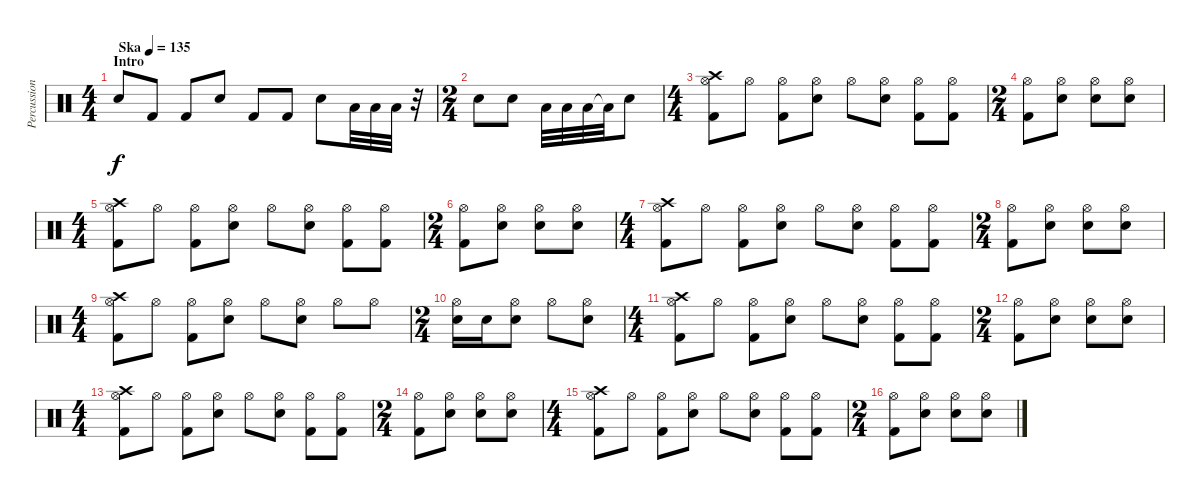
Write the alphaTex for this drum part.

\track ("Percussion" "Percussion") {instrument percussion}
\staff {score}
\articulation defaults
\ts (4 4)
\section ("" "Intro")
\tempo (135 "Ska")
\clef neutral
\ks c "Electric Snare (hit)".8{dy f} "Kick (hit) 2".8 "Kick (hit) 2".8 "Electric Snare (hit)".8 "Kick (hit) 2".8 "Kick (hit) 2".8 "Electric Snare (hit)".8 "Low Tom (hit)".32 "Low Tom (hit)".32 "Low Tom (hit)".32
r.32 |
\ts (2 4)
"Electric Snare (hit)".8 "Electric Snare (hit)".8 "Low Tom (hit)".32 "Low Tom (hit)".32 "Low Tom (hit)".32 "Low Tom (hit)"{t}.32 "Electric Snare (hit)".8 |
\ts (4 4)
("Crash high (hit)" "Hi-Hat (open)" "Kick (hit) 2").8 "Hi-Hat (open)".8 ("Hi-Hat (open)" "Kick (hit) 2").8 ("Hi-Hat (open)" "Electric Snare (hit)").8 "Hi-Hat (open)".8 ("Hi-Hat (open)" "Electric Snare (hit)").8 ("Hi-Hat (open)" "Kick (hit) 2").8 ("Hi-Hat (open)" "Kick (hit) 2").8 |
\ts (2 4)
("Hi-Hat (open)" "Kick (hit) 2").8 ("Hi-Hat (open)" "Electric Snare (hit)").8 ("Hi-Hat (open)" "Electric Snare (hit)").8 ("Hi-Hat (open)" "Electric Snare (hit)").8 |
\ts (4 4)
("Crash high (hit)" "Hi-Hat (open)" "Kick (hit) 2").8 "Hi-Hat (open)".8 ("Hi-Hat (open)" "Kick (hit) 2").8 ("Hi-Hat (open)" "Electric Snare (hit)").8 "Hi-Hat (open)".8 ("Hi-Hat (open)" "Electric Snare (hit)").8 ("Hi-Hat (open)" "Kick (hit) 2").8 ("Hi-Hat (open)" "Kick (hit) 2").8 |
\ts (2 4)
("Hi-Hat (open)" "Kick (hit) 2").8 ("Hi-Hat (open)" "Electric Snare (hit)").8 ("Hi-Hat (open)" "Electric Snare (hit)").8 ("Hi-Hat (open)" "Electric Snare (hit)").8 |
\ts (4 4)
("Crash high (hit)" "Hi-Hat (open)" "Kick (hit) 2").8 "Hi-Hat (open)".8 ("Hi-Hat (open)" "Kick (hit) 2").8 ("Hi-Hat (open)" "Electric Snare (hit)").8 "Hi-Hat (open)".8 ("Hi-Hat (open)" "Electric Snare (hit)").8 ("Hi-Hat (open)" "Kick (hit) 2").8 ("Hi-Hat (open)" "Kick (hit) 2").8 |
\ts (2 4)
("Hi-Hat (open)" "Kick (hit) 2").8 ("Hi-Hat (open)" "Electric Snare (hit)").8 ("Hi-Hat (open)" "Electric Snare (hit)").8 ("Hi-Hat (open)" "Electric Snare (hit)").8 |
\ts (4 4)
("Crash high (hit)" "Hi-Hat (open)" "Kick (hit) 2").8 "Hi-Hat (open)".8 ("Hi-Hat (open)" "Kick (hit) 2").8 ("Hi-Hat (open)" "Electric Snare (hit)").8 "Hi-Hat (open)".8 ("Hi-Hat (open)" "Electric Snare (hit)").8 "Hi-Hat (open)".8 "Hi-Hat (open)".8 |
\ts (2 4)
("Hi-Hat (open)" "Electric Snare (hit)").16 "Electric Snare (hit)".16 ("Hi-Hat (open)" "Electric Snare (hit)").8 "Hi-Hat (open)".8 ("Hi-Hat (open)" "Electric Snare (hit)").8 |
\ts (4 4)
("Crash high (hit)" "Hi-Hat (open)" "Kick (hit) 2").8 "Hi-Hat (open)".8 ("Hi-Hat (open)" "Kick (hit) 2").8 ("Hi-Hat (open)" "Electric Snare (hit)").8 "Hi-Hat (open)".8 ("Hi-Hat (open)" "Electric Snare (hit)").8 ("Hi-Hat (open)" "Kick (hit) 2").8 ("Hi-Hat (open)" "Kick (hit) 2").8 |
\ts (2 4)
("Hi-Hat (open)" "Kick (hit) 2").8 ("Hi-Hat (open)" "Electric Snare (hit)").8 ("Hi-Hat (open)" "Electric Snare (hit)").8 ("Hi-Hat (open)" "Electric Snare (hit)").8 |
\ts (4 4)
("Crash high (hit)" "Hi-Hat (open)" "Kick (hit) 2").8 "Hi-Hat (open)".8 ("Hi-Hat (open)" "Kick (hit) 2").8 ("Hi-Hat (open)" "Electric Snare (hit)").8 "Hi-Hat (open)".8 ("Hi-Hat (open)" "Electric Snare (hit)").8 ("Hi-Hat (open)" "Kick (hit) 2").8 ("Hi-Hat (open)" "Kick (hit) 2").8 |
\ts (2 4)
("Hi-Hat (open)" "Kick (hit) 2").8 ("Hi-Hat (open)" "Electric Snare (hit)").8 ("Hi-Hat (open)" "Electric Snare (hit)").8 ("Hi-Hat (open)" "Electric Snare (hit)").8 |
\ts (4 4)
("Crash high (hit)" "Hi-Hat (open)" "Kick (hit) 2").8 "Hi-Hat (open)".8 ("Hi-Hat (open)" "Kick (hit) 2").8 ("Hi-Hat (open)" "Electric Snare (hit)").8 "Hi-Hat (open)".8 ("Hi-Hat (open)" "Electric Snare (hit)").8 ("Hi-Hat (open)" "Kick (hit) 2").8 ("Hi-Hat (open)" "Kick (hit) 2").8 |
\ts (2 4)
("Hi-Hat (open)" "Kick (hit) 2").8 ("Hi-Hat (open)" "Electric Snare (hit)").8 ("Hi-Hat (open)" "Electric Snare (hit)").8 ("Hi-Hat (open)" "Electric Snare (hit)").8
